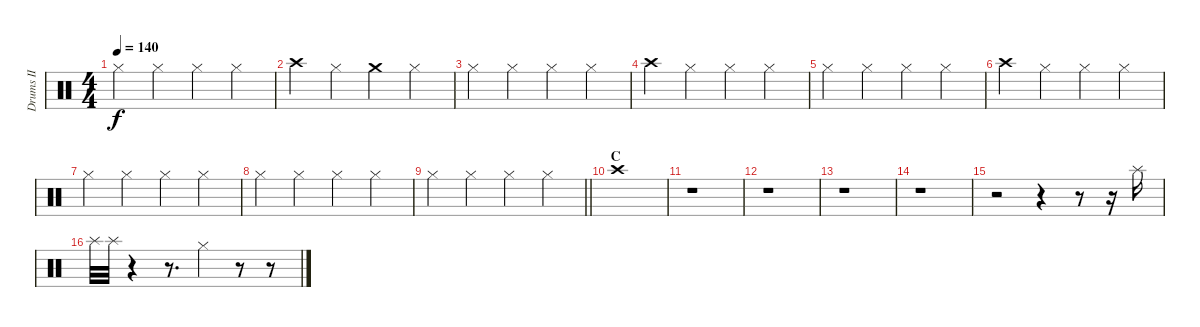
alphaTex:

\track ("Drums II" "Drums II") {instrument percussion}
\staff {score}
\articulation defaults
\ts (4 4)
\tempo 140
\clef neutral
\ks c "Hi-Hat (closed)".4{dy f} "Hi-Hat (closed)".4 "Hi-Hat (closed)".4 "Hi-Hat (closed)".4
|
"Crash high (hit)".4 "Hi-Hat (closed)".4 "Crash medium (hit)".4 "Hi-Hat (closed)".4 |
"Hi-Hat (closed)".4 "Hi-Hat (closed)".4 "Hi-Hat (closed)".4 "Hi-Hat (closed)".4 |
"Crash high (hit)".4 "Hi-Hat (closed)".4 "Hi-Hat (closed)".4 "Hi-Hat (closed)".4 |
"Hi-Hat (closed)".4 "Hi-Hat (closed)".4 "Hi-Hat (closed)".4 "Hi-Hat (closed)".4 |
"Crash high (hit)".4 "Hi-Hat (closed)".4 "Hi-Hat (closed)".4 "Hi-Hat (closed)".4 |
"Hi-Hat (closed)".4 "Hi-Hat (closed)".4 "Hi-Hat (closed)".4 "Hi-Hat (closed)".4 |
"Hi-Hat (closed)".4 "Hi-Hat (closed)".4 "Hi-Hat (closed)".4 "Hi-Hat (closed)".4 |
\barLineRight lightlight "Hi-Hat (closed)".4 "Hi-Hat (closed)".4 "Hi-Hat (closed)".4 "Hi-Hat (closed)".4
|
\section ("" "C")
"Crash high (hit)".1 |
r.1 |
r.1 |
r.1 |
r.1 |
r.2 r.4 r.8 r.16 "Splash (hit)".16 |
"Splash (hit)".32 "Splash (hit)".32 r.4 r.8{d} "Hi-Hat (closed)".4 r.8 r.8
